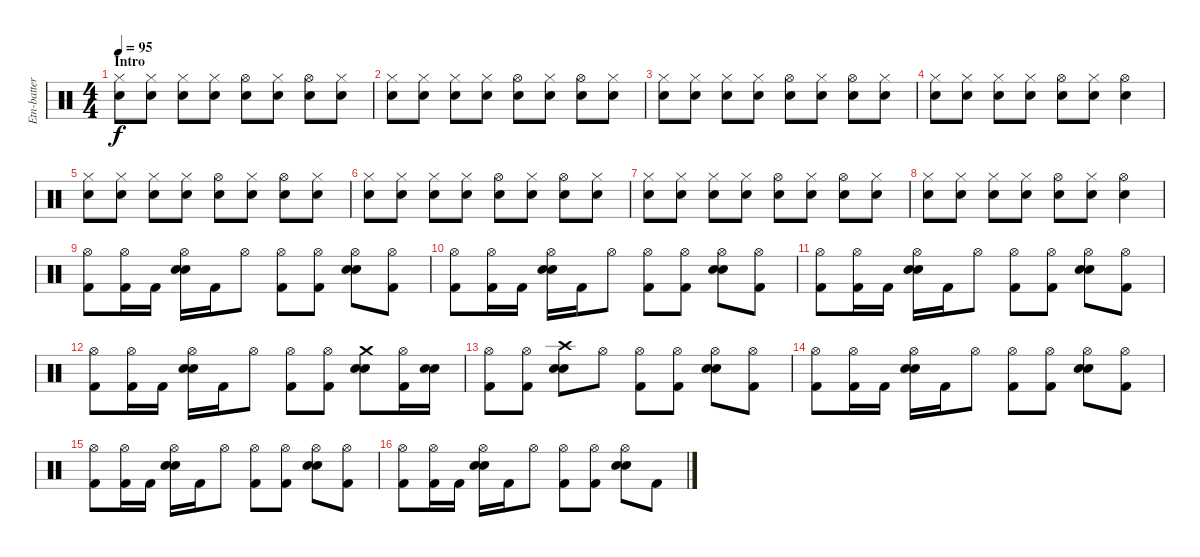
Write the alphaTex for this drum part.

\track ("Etn-batterie" "Etn-batter") {instrument percussion}
\staff {score}
\articulation defaults
\ts (4 4)
\section ("" "Intro")
\tempo 95
\clef neutral
\ks c
("Electric Snare (hit)" "Hi-Hat (closed)").8{dy f volume 12} ("Electric Snare (hit)" "Hi-Hat (closed)").8 ("Electric Snare (hit)" "Hi-Hat (closed)").8 ("Electric Snare (hit)" "Hi-Hat (closed)").8 ("Electric Snare (hit)" "Hi-Hat (open)").8 ("Electric Snare (hit)" "Hi-Hat (closed)").8 ("Electric Snare (hit)" "Hi-Hat (open)").8 ("Electric Snare (hit)" "Hi-Hat (closed)").8 |
("Electric Snare (hit)" "Hi-Hat (closed)").8{volume 12} ("Electric Snare (hit)" "Hi-Hat (closed)").8 ("Electric Snare (hit)" "Hi-Hat (closed)").8 ("Electric Snare (hit)" "Hi-Hat (closed)").8 ("Electric Snare (hit)" "Hi-Hat (open)").8 ("Electric Snare (hit)" "Hi-Hat (closed)").8 ("Electric Snare (hit)" "Hi-Hat (open)").8 ("Electric Snare (hit)" "Hi-Hat (closed)").8 |
("Electric Snare (hit)" "Hi-Hat (closed)").8{volume 12} ("Electric Snare (hit)" "Hi-Hat (closed)").8 ("Electric Snare (hit)" "Hi-Hat (closed)").8 ("Electric Snare (hit)" "Hi-Hat (closed)").8 ("Electric Snare (hit)" "Hi-Hat (open)").8 ("Electric Snare (hit)" "Hi-Hat (closed)").8 ("Electric Snare (hit)" "Hi-Hat (open)").8 ("Electric Snare (hit)" "Hi-Hat (closed)").8 |
("Electric Snare (hit)" "Hi-Hat (closed)").8{volume 12} ("Electric Snare (hit)" "Hi-Hat (closed)").8 ("Electric Snare (hit)" "Hi-Hat (closed)").8 ("Electric Snare (hit)" "Hi-Hat (closed)").8 ("Electric Snare (hit)" "Hi-Hat (open)").8 ("Electric Snare (hit)" "Hi-Hat (closed)").8 ("Electric Snare (hit)" "Hi-Hat (open)").4 |
("Electric Snare (hit)" "Hi-Hat (closed)").8{volume 12} ("Electric Snare (hit)" "Hi-Hat (closed)").8 ("Electric Snare (hit)" "Hi-Hat (closed)").8 ("Electric Snare (hit)" "Hi-Hat (closed)").8 ("Electric Snare (hit)" "Hi-Hat (open)").8 ("Electric Snare (hit)" "Hi-Hat (closed)").8 ("Electric Snare (hit)" "Hi-Hat (open)").8 ("Electric Snare (hit)" "Hi-Hat (closed)").8 |
("Electric Snare (hit)" "Hi-Hat (closed)").8{volume 12} ("Electric Snare (hit)" "Hi-Hat (closed)").8 ("Electric Snare (hit)" "Hi-Hat (closed)").8 ("Electric Snare (hit)" "Hi-Hat (closed)").8 ("Electric Snare (hit)" "Hi-Hat (open)").8 ("Electric Snare (hit)" "Hi-Hat (closed)").8 ("Electric Snare (hit)" "Hi-Hat (open)").8 ("Electric Snare (hit)" "Hi-Hat (closed)").8 |
("Electric Snare (hit)" "Hi-Hat (closed)").8{volume 12} ("Electric Snare (hit)" "Hi-Hat (closed)").8 ("Electric Snare (hit)" "Hi-Hat (closed)").8 ("Electric Snare (hit)" "Hi-Hat (closed)").8 ("Electric Snare (hit)" "Hi-Hat (open)").8 ("Electric Snare (hit)" "Hi-Hat (closed)").8 ("Electric Snare (hit)" "Hi-Hat (open)").8 ("Electric Snare (hit)" "Hi-Hat (closed)").8 |
("Electric Snare (hit)" "Hi-Hat (closed)").8{volume 12} ("Electric Snare (hit)" "Hi-Hat (closed)").8 ("Electric Snare (hit)" "Hi-Hat (closed)").8 ("Electric Snare (hit)" "Hi-Hat (closed)").8 ("Electric Snare (hit)" "Hi-Hat (open)").8 ("Electric Snare (hit)" "Hi-Hat (closed)").8 ("Electric Snare (hit)" "Hi-Hat (open)").4 |
("Kick (hit) 2" "Hi-Hat (open)").8{volume 16} ("Kick (hit) 2" "Hi-Hat (open)").16 "Kick (hit) 2".16 ("Electric Snare (hit)" "Electric Snare (hit)" "Hi-Hat (open)").16 "Kick (hit) 2".16 "Hi-Hat (open)".8 ("Kick (hit) 2" "Hi-Hat (open)").8 ("Kick (hit) 2" "Hi-Hat (open)").8 ("Electric Snare (hit)" "Electric Snare (hit)" "Hi-Hat (open)").8 ("Kick (hit) 2" "Hi-Hat (open)").8 |
("Kick (hit) 2" "Hi-Hat (open)").8 ("Kick (hit) 2" "Hi-Hat (open)").16 "Kick (hit) 2".16 ("Electric Snare (hit)" "Electric Snare (hit)" "Hi-Hat (open)").16 "Kick (hit) 2".16 "Hi-Hat (open)".8 ("Kick (hit) 2" "Hi-Hat (open)").8 ("Kick (hit) 2" "Hi-Hat (open)").8 ("Electric Snare (hit)" "Electric Snare (hit)" "Hi-Hat (open)").8 ("Kick (hit) 2" "Hi-Hat (open)").8 |
("Kick (hit) 2" "Hi-Hat (open)").8 ("Kick (hit) 2" "Hi-Hat (open)").16 "Kick (hit) 2".16 ("Electric Snare (hit)" "Electric Snare (hit)" "Hi-Hat (open)").16 "Kick (hit) 2".16 "Hi-Hat (open)".8 ("Kick (hit) 2" "Hi-Hat (open)").8 ("Kick (hit) 2" "Hi-Hat (open)").8 ("Electric Snare (hit)" "Electric Snare (hit)" "Hi-Hat (open)").8 ("Kick (hit) 2" "Hi-Hat (open)").8 |
("Kick (hit) 2" "Hi-Hat (open)").8 ("Kick (hit) 2" "Hi-Hat (open)").16 "Kick (hit) 2".16 ("Electric Snare (hit)" "Electric Snare (hit)" "Hi-Hat (open)").16 "Kick (hit) 2".16 "Hi-Hat (open)".8 ("Kick (hit) 2" "Hi-Hat (open)").8 ("Kick (hit) 2" "Hi-Hat (open)").8 ("Electric Snare (hit)" "Electric Snare (hit)" "Crash medium (hit)").8 ("Kick (hit) 2" "Hi-Hat (open)").16 ("Electric Snare (hit)" "Electric Snare (hit)").16 |
("Kick (hit) 2" "Hi-Hat (open)").8 ("Kick (hit) 2" "Hi-Hat (open)").8 ("Electric Snare (hit)" "Electric Snare (hit)" "Crash high (hit)").8 "Hi-Hat (open)".8 ("Kick (hit) 2" "Hi-Hat (open)").8 ("Kick (hit) 2" "Hi-Hat (open)").8 ("Electric Snare (hit)" "Electric Snare (hit)" "Hi-Hat (open)").8 ("Kick (hit) 2" "Hi-Hat (open)").8 |
("Kick (hit) 2" "Hi-Hat (open)").8 ("Kick (hit) 2" "Hi-Hat (open)").16 "Kick (hit) 2".16 ("Electric Snare (hit)" "Electric Snare (hit)" "Hi-Hat (open)").16 "Kick (hit) 2".16 "Hi-Hat (open)".8 ("Kick (hit) 2" "Hi-Hat (open)").8 ("Kick (hit) 2" "Hi-Hat (open)").8 ("Electric Snare (hit)" "Electric Snare (hit)" "Hi-Hat (open)").8 ("Kick (hit) 2" "Hi-Hat (open)").8 |
("Kick (hit) 2" "Hi-Hat (open)").8 ("Kick (hit) 2" "Hi-Hat (open)").16 "Kick (hit) 2".16 ("Electric Snare (hit)" "Electric Snare (hit)" "Hi-Hat (open)").16 "Kick (hit) 2".16 "Hi-Hat (open)".8 ("Kick (hit) 2" "Hi-Hat (open)").8 ("Kick (hit) 2" "Hi-Hat (open)").8 ("Electric Snare (hit)" "Electric Snare (hit)" "Hi-Hat (open)").8 ("Kick (hit) 2" "Hi-Hat (open)").8 |
("Kick (hit) 2" "Hi-Hat (open)").8 ("Kick (hit) 2" "Hi-Hat (open)").16 "Kick (hit) 2".16 ("Electric Snare (hit)" "Electric Snare (hit)" "Hi-Hat (open)").16 "Kick (hit) 2".16 "Hi-Hat (open)".8 ("Kick (hit) 2" "Hi-Hat (open)").8 ("Kick (hit) 2" "Hi-Hat (open)").8 ("Electric Snare (hit)" "Electric Snare (hit)" "Hi-Hat (open)").8 "Kick (hit) 2".8
